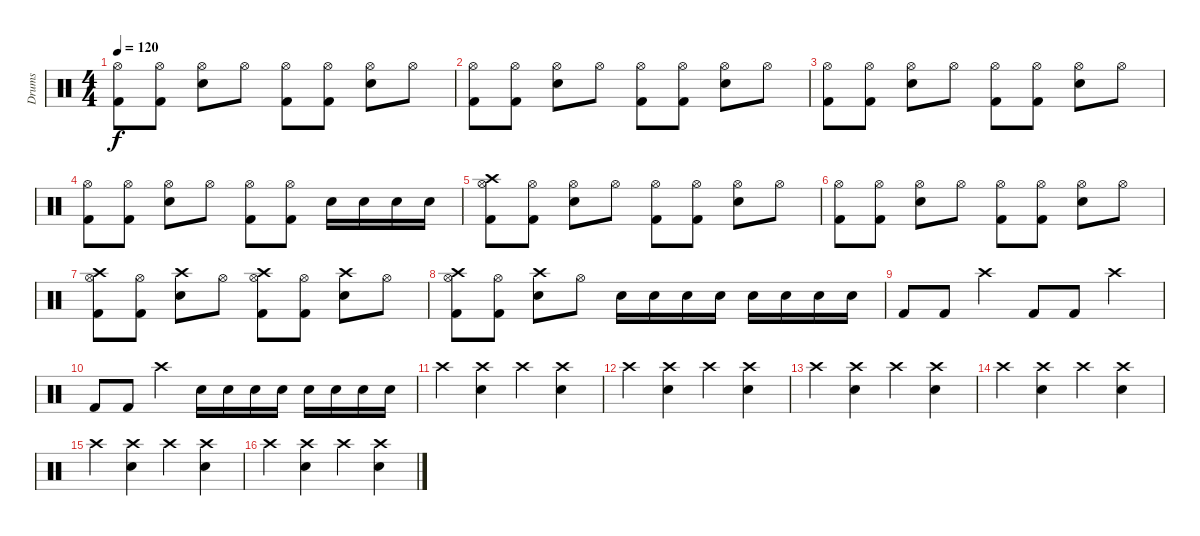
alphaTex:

\track ("Drums" "Drums") {instrument percussion}
\staff {score}
\articulation defaults
\ts (4 4)
\tempo 120
\clef neutral
\ks c
("Hi-Hat (open)" "Kick (hit) 2").8{dy f} ("Hi-Hat (open)" "Kick (hit) 2").8 ("Hi-Hat (open)" "Snare (hit) 2").8 "Hi-Hat (open)".8 ("Hi-Hat (open)" "Kick (hit) 2").8 ("Hi-Hat (open)" "Kick (hit) 2").8 ("Hi-Hat (open)" "Snare (hit) 2").8 "Hi-Hat (open)".8 |
("Hi-Hat (open)" "Kick (hit) 2").8 ("Hi-Hat (open)" "Kick (hit) 2").8 ("Hi-Hat (open)" "Snare (hit) 2").8 "Hi-Hat (open)".8 ("Hi-Hat (open)" "Kick (hit) 2").8 ("Hi-Hat (open)" "Kick (hit) 2").8 ("Hi-Hat (open)" "Snare (hit) 2").8 "Hi-Hat (open)".8 |
("Hi-Hat (open)" "Kick (hit) 2").8 ("Hi-Hat (open)" "Kick (hit) 2").8 ("Hi-Hat (open)" "Snare (hit) 2").8 "Hi-Hat (open)".8 ("Hi-Hat (open)" "Kick (hit) 2").8 ("Hi-Hat (open)" "Kick (hit) 2").8 ("Hi-Hat (open)" "Snare (hit) 2").8 "Hi-Hat (open)".8 |
("Hi-Hat (open)" "Kick (hit) 2").8 ("Hi-Hat (open)" "Kick (hit) 2").8 ("Hi-Hat (open)" "Snare (hit) 2").8 "Hi-Hat (open)".8 ("Hi-Hat (open)" "Kick (hit) 2").8 ("Hi-Hat (open)" "Kick (hit) 2").8 "Snare (hit) 2".16 "Snare (hit) 2".16 "Snare (hit) 2".16 "Snare (hit) 2".16 |
("Hi-Hat (open)" "Kick (hit) 2" "Crash high (hit)").8 ("Hi-Hat (open)" "Kick (hit) 2").8 ("Hi-Hat (open)" "Snare (hit) 2").8 "Hi-Hat (open)".8 ("Hi-Hat (open)" "Kick (hit) 2").8 ("Hi-Hat (open)" "Kick (hit) 2").8 ("Hi-Hat (open)" "Snare (hit) 2").8 "Hi-Hat (open)".8 |
("Hi-Hat (open)" "Kick (hit) 2").8 ("Hi-Hat (open)" "Kick (hit) 2").8 ("Hi-Hat (open)" "Snare (hit) 2").8 "Hi-Hat (open)".8 ("Hi-Hat (open)" "Kick (hit) 2").8 ("Hi-Hat (open)" "Kick (hit) 2").8 ("Hi-Hat (open)" "Snare (hit) 2").8 "Hi-Hat (open)".8 |
("Hi-Hat (open)" "Kick (hit) 2" "Crash high (hit)").8 ("Hi-Hat (open)" "Kick (hit) 2").8 ("Snare (hit) 2" "Crash high (hit)").8 "Hi-Hat (open)".8 ("Hi-Hat (open)" "Kick (hit) 2" "Crash high (hit)").8 ("Hi-Hat (open)" "Kick (hit) 2").8 ("Snare (hit) 2" "Crash high (hit)").8 "Hi-Hat (open)".8 |
("Hi-Hat (open)" "Kick (hit) 2" "Crash high (hit)").8 ("Hi-Hat (open)" "Kick (hit) 2").8 ("Snare (hit) 2" "Crash high (hit)").8 "Hi-Hat (open)".8 "Snare (hit) 2".16 "Snare (hit) 2".16 "Snare (hit) 2".16 "Snare (hit) 2".16 "Snare (hit) 2".16 "Snare (hit) 2".16 "Snare (hit) 2".16 "Snare (hit) 2".16 |
"Kick (hit) 2".8 "Kick (hit) 2".8 "Crash high (hit)".4 "Kick (hit) 2".8 "Kick (hit) 2".8 "Crash high (hit)".4 |
"Kick (hit) 2".8 "Kick (hit) 2".8 "Crash high (hit)".4 "Snare (hit) 2".16 "Snare (hit) 2".16 "Snare (hit) 2".16 "Snare (hit) 2".16 "Snare (hit) 2".16 "Snare (hit) 2".16 "Snare (hit) 2".16 "Snare (hit) 2".16 |
"Crash high (hit)".4 ("Crash high (hit)" "Snare (hit) 2").4 "Crash high (hit)".4 ("Crash high (hit)" "Snare (hit) 2").4 |
"Crash high (hit)".4 ("Crash high (hit)" "Snare (hit) 2").4 "Crash high (hit)".4 ("Crash high (hit)" "Snare (hit) 2").4 |
"Crash high (hit)".4 ("Crash high (hit)" "Snare (hit) 2").4 "Crash high (hit)".4 ("Crash high (hit)" "Snare (hit) 2").4 |
"Crash high (hit)".4 ("Crash high (hit)" "Snare (hit) 2").4 "Crash high (hit)".4 ("Crash high (hit)" "Snare (hit) 2").4 |
"Crash high (hit)".4 ("Crash high (hit)" "Snare (hit) 2").4 "Crash high (hit)".4 ("Crash high (hit)" "Snare (hit) 2").4 |
"Crash high (hit)".4 ("Crash high (hit)" "Snare (hit) 2").4 "Crash high (hit)".4 ("Crash high (hit)" "Snare (hit) 2").4
